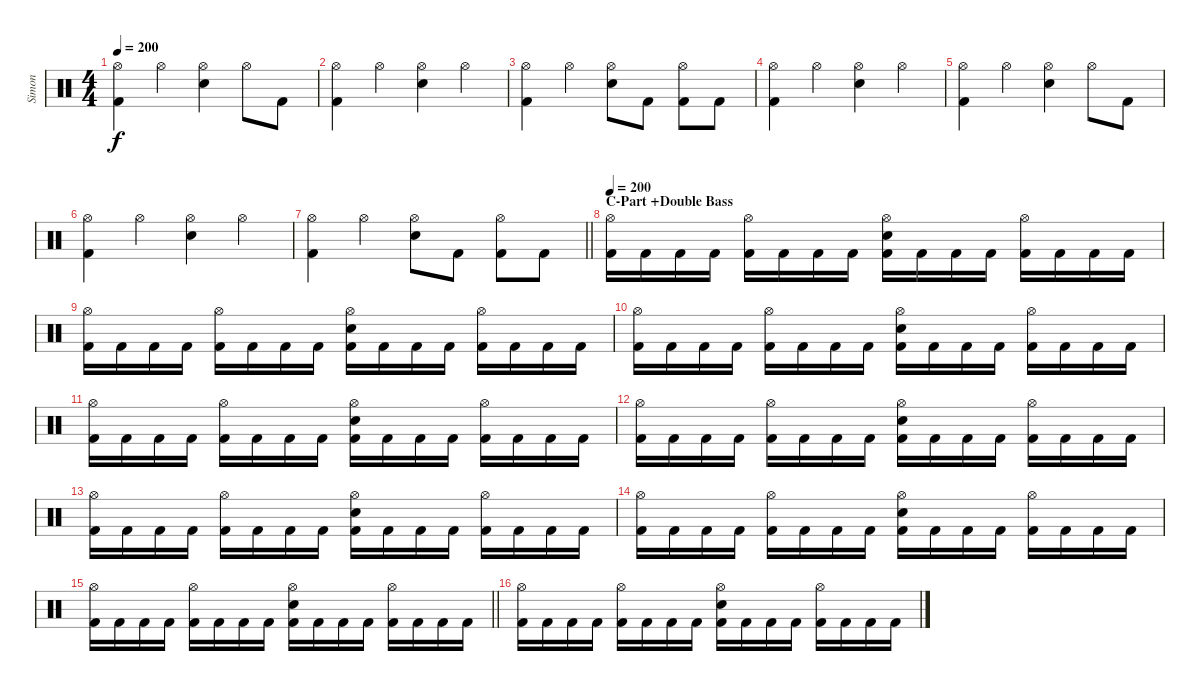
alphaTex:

\track ("Simon" "Simon") {instrument percussion}
\staff {score}
\articulation defaults
\ts (4 4)
\tempo 200
\clef neutral
\ks c
("Hi-Hat (open)" "Kick (hit) 2").4{dy f} "Hi-Hat (open)".4 ("Hi-Hat (open)" "Electric Snare (hit)").4 "Hi-Hat (open)".8 "Kick (hit) 2".8 |
("Hi-Hat (open)" "Kick (hit) 2").4 "Hi-Hat (open)".4 ("Hi-Hat (open)" "Electric Snare (hit)").4 "Hi-Hat (open)".4 |
("Hi-Hat (open)" "Kick (hit) 2").4 "Hi-Hat (open)".4 ("Hi-Hat (open)" "Electric Snare (hit)").8 "Kick (hit) 2".8 ("Hi-Hat (open)" "Kick (hit) 2").8 "Kick (hit) 2".8 |
("Hi-Hat (open)" "Kick (hit) 2").4 "Hi-Hat (open)".4 ("Hi-Hat (open)" "Electric Snare (hit)").4 "Hi-Hat (open)".4 |
("Hi-Hat (open)" "Kick (hit) 2").4 "Hi-Hat (open)".4 ("Hi-Hat (open)" "Electric Snare (hit)").4 "Hi-Hat (open)".8 "Kick (hit) 2".8 |
("Hi-Hat (open)" "Kick (hit) 2").4 "Hi-Hat (open)".4 ("Hi-Hat (open)" "Electric Snare (hit)").4 "Hi-Hat (open)".4 |
\barLineRight lightlight
("Hi-Hat (open)" "Kick (hit) 2").4 "Hi-Hat (open)".4 ("Hi-Hat (open)" "Electric Snare (hit)").8 "Kick (hit) 2".8 ("Hi-Hat (open)" "Kick (hit) 2").8 "Kick (hit) 2".8 |
\section ("" "C-Part +Double Bass")
\tempo 200
("Hi-Hat (open)" "Kick (hit) 2").16 "Kick (hit) 2".16 "Kick (hit) 2".16 "Kick (hit) 2".16 ("Hi-Hat (open)" "Kick (hit) 2").16 "Kick (hit) 2".16 "Kick (hit) 2".16 "Kick (hit) 2".16 ("Hi-Hat (open)" "Electric Snare (hit)" "Kick (hit) 2").16 "Kick (hit) 2".16 "Kick (hit) 2".16 "Kick (hit) 2".16 ("Hi-Hat (open)" "Kick (hit) 2").16 "Kick (hit) 2".16 "Kick (hit) 2".16 "Kick (hit) 2".16 |
("Hi-Hat (open)" "Kick (hit) 2").16 "Kick (hit) 2".16 "Kick (hit) 2".16 "Kick (hit) 2".16 ("Hi-Hat (open)" "Kick (hit) 2").16 "Kick (hit) 2".16 "Kick (hit) 2".16 "Kick (hit) 2".16 ("Hi-Hat (open)" "Electric Snare (hit)" "Kick (hit) 2").16 "Kick (hit) 2".16 "Kick (hit) 2".16 "Kick (hit) 2".16 ("Hi-Hat (open)" "Kick (hit) 2").16 "Kick (hit) 2".16 "Kick (hit) 2".16 "Kick (hit) 2".16 |
("Hi-Hat (open)" "Kick (hit) 2").16 "Kick (hit) 2".16 "Kick (hit) 2".16 "Kick (hit) 2".16 ("Hi-Hat (open)" "Kick (hit) 2").16 "Kick (hit) 2".16 "Kick (hit) 2".16 "Kick (hit) 2".16 ("Hi-Hat (open)" "Electric Snare (hit)" "Kick (hit) 2").16 "Kick (hit) 2".16 "Kick (hit) 2".16 "Kick (hit) 2".16 ("Hi-Hat (open)" "Kick (hit) 2").16 "Kick (hit) 2".16 "Kick (hit) 2".16 "Kick (hit) 2".16 |
("Hi-Hat (open)" "Kick (hit) 2").16 "Kick (hit) 2".16 "Kick (hit) 2".16 "Kick (hit) 2".16 ("Hi-Hat (open)" "Kick (hit) 2").16 "Kick (hit) 2".16 "Kick (hit) 2".16 "Kick (hit) 2".16 ("Hi-Hat (open)" "Electric Snare (hit)" "Kick (hit) 2").16 "Kick (hit) 2".16 "Kick (hit) 2".16 "Kick (hit) 2".16 ("Hi-Hat (open)" "Kick (hit) 2").16 "Kick (hit) 2".16 "Kick (hit) 2".16 "Kick (hit) 2".16 |
("Hi-Hat (open)" "Kick (hit) 2").16 "Kick (hit) 2".16 "Kick (hit) 2".16 "Kick (hit) 2".16 ("Hi-Hat (open)" "Kick (hit) 2").16 "Kick (hit) 2".16 "Kick (hit) 2".16 "Kick (hit) 2".16 ("Hi-Hat (open)" "Electric Snare (hit)" "Kick (hit) 2").16 "Kick (hit) 2".16 "Kick (hit) 2".16 "Kick (hit) 2".16 ("Hi-Hat (open)" "Kick (hit) 2").16 "Kick (hit) 2".16 "Kick (hit) 2".16 "Kick (hit) 2".16 |
("Hi-Hat (open)" "Kick (hit) 2").16 "Kick (hit) 2".16 "Kick (hit) 2".16 "Kick (hit) 2".16 ("Hi-Hat (open)" "Kick (hit) 2").16 "Kick (hit) 2".16 "Kick (hit) 2".16 "Kick (hit) 2".16 ("Hi-Hat (open)" "Electric Snare (hit)" "Kick (hit) 2").16 "Kick (hit) 2".16 "Kick (hit) 2".16 "Kick (hit) 2".16 ("Hi-Hat (open)" "Kick (hit) 2").16 "Kick (hit) 2".16 "Kick (hit) 2".16 "Kick (hit) 2".16 |
("Hi-Hat (open)" "Kick (hit) 2").16 "Kick (hit) 2".16 "Kick (hit) 2".16 "Kick (hit) 2".16 ("Hi-Hat (open)" "Kick (hit) 2").16 "Kick (hit) 2".16 "Kick (hit) 2".16 "Kick (hit) 2".16 ("Hi-Hat (open)" "Electric Snare (hit)" "Kick (hit) 2").16 "Kick (hit) 2".16 "Kick (hit) 2".16 "Kick (hit) 2".16 ("Hi-Hat (open)" "Kick (hit) 2").16 "Kick (hit) 2".16 "Kick (hit) 2".16 "Kick (hit) 2".16 |
\barLineRight lightlight
("Hi-Hat (open)" "Kick (hit) 2").16 "Kick (hit) 2".16 "Kick (hit) 2".16 "Kick (hit) 2".16 ("Hi-Hat (open)" "Kick (hit) 2").16 "Kick (hit) 2".16 "Kick (hit) 2".16 "Kick (hit) 2".16 ("Hi-Hat (open)" "Electric Snare (hit)" "Kick (hit) 2").16 "Kick (hit) 2".16 "Kick (hit) 2".16 "Kick (hit) 2".16 ("Hi-Hat (open)" "Kick (hit) 2").16 "Kick (hit) 2".16 "Kick (hit) 2".16 "Kick (hit) 2".16 |
("Hi-Hat (open)" "Kick (hit) 2").16 "Kick (hit) 2".16 "Kick (hit) 2".16 "Kick (hit) 2".16 ("Hi-Hat (open)" "Kick (hit) 2").16 "Kick (hit) 2".16 "Kick (hit) 2".16 "Kick (hit) 2".16 ("Hi-Hat (open)" "Electric Snare (hit)" "Kick (hit) 2").16 "Kick (hit) 2".16 "Kick (hit) 2".16 "Kick (hit) 2".16 ("Hi-Hat (open)" "Kick (hit) 2").16 "Kick (hit) 2".16 "Kick (hit) 2".16 "Kick (hit) 2".16
